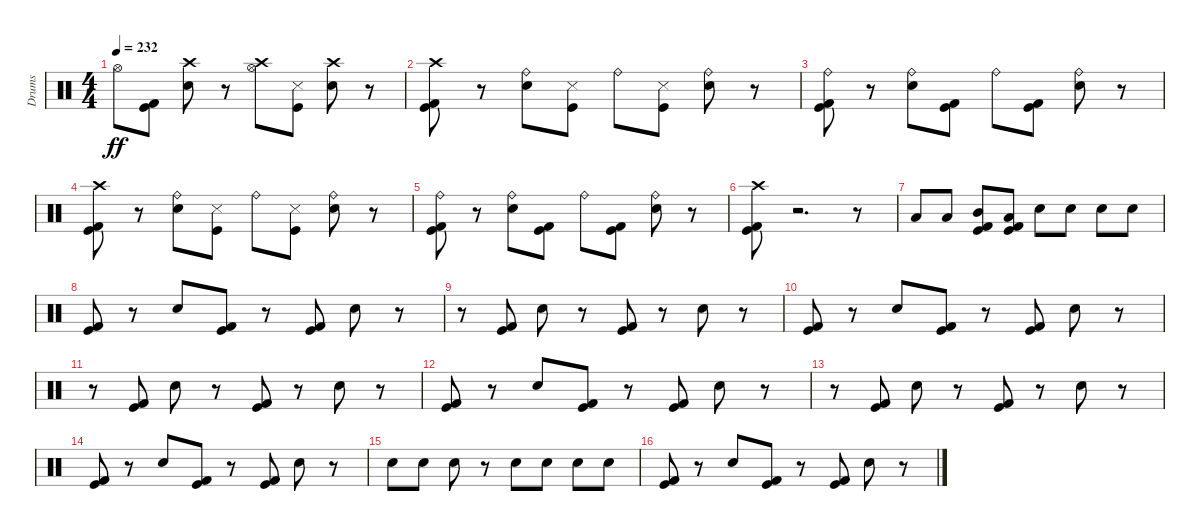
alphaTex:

\track ("Drums" "Drums") {instrument percussion}
\staff {score}
\articulation defaults
\ts (4 4)
\tempo 232
\clef neutral
\ks c "Hi-Hat (open)".8{dy ff}
("Kick (hit)" "Kick (hit) 2").8 ("Snare (hit) 2" "Crash high (hit)").8 r.8 ("Hi-Hat (open)" "Crash high (hit)").8 ("Kick (hit)" "Snare (side stick) 3").8 ("Snare (hit) 2" "Crash high (hit)").8 r.8 |
("Kick (hit)" "Kick (hit) 2" "Crash high (hit)").8 r.8 ("Snare (hit) 2" "Ride (bell)").8 ("Kick (hit)" "Snare (side stick) 3").8 "Ride (bell)".8 ("Kick (hit)" "Snare (side stick) 3").8 ("Snare (hit) 2" "Ride (bell)").8 r.8 |
("Kick (hit)" "Kick (hit) 2" "Ride (bell)").8 r.8 ("Snare (hit) 2" "Ride (bell)").8 ("Kick (hit)" "Kick (hit) 2").8 "Ride (bell)".8 ("Kick (hit)" "Kick (hit) 2").8 ("Snare (hit) 2" "Ride (bell)").8 r.8 |
("Kick (hit)" "Kick (hit) 2" "Crash high (hit)").8 r.8 ("Snare (hit) 2" "Ride (bell)").8 ("Kick (hit)" "Snare (side stick) 3").8 "Ride (bell)".8 ("Kick (hit)" "Snare (side stick) 3").8 ("Snare (hit) 2" "Ride (bell)").8 r.8 |
("Kick (hit)" "Kick (hit) 2" "Ride (bell)").8 r.8 ("Snare (hit) 2" "Ride (bell)").8 ("Kick (hit)" "Kick (hit) 2").8 "Ride (bell)".8 ("Kick (hit)" "Kick (hit) 2").8 ("Snare (hit) 2" "Ride (bell)").8 r.8 |
("Kick (hit)" "Kick (hit) 2" "Crash high (hit)").8 r.2{d} r.8 |
"Low Floor Tom (hit)".8 "Low Floor Tom (hit)".8 ("Kick (hit)" "Kick (hit) 2" "Mid Tom (hit)").8 ("Kick (hit)" "Kick (hit) 2" "Low Tom (hit)").8 "Snare (hit) 2".8 "Snare (hit) 2".8 "Snare (hit) 2".8 "Snare (hit) 2".8 |
("Kick (hit)" "Kick (hit) 2").8 r.8 "Snare (hit) 2".8 ("Kick (hit)" "Kick (hit) 2").8 r.8 ("Kick (hit)" "Kick (hit) 2").8 "Snare (hit) 2".8 r.8 |
r.8 ("Kick (hit)" "Kick (hit) 2").8 "Snare (hit) 2".8 r.8 ("Kick (hit)" "Kick (hit) 2").8 r.8 "Snare (hit) 2".8 r.8 |
("Kick (hit)" "Kick (hit) 2").8 r.8 "Snare (hit) 2".8 ("Kick (hit)" "Kick (hit) 2").8 r.8 ("Kick (hit)" "Kick (hit) 2").8 "Snare (hit) 2".8 r.8 |
r.8 ("Kick (hit)" "Kick (hit) 2").8 "Snare (hit) 2".8 r.8 ("Kick (hit)" "Kick (hit) 2").8 r.8 "Snare (hit) 2".8 r.8 |
("Kick (hit)" "Kick (hit) 2").8 r.8 "Snare (hit) 2".8 ("Kick (hit)" "Kick (hit) 2").8 r.8 ("Kick (hit)" "Kick (hit) 2").8 "Snare (hit) 2".8 r.8 |
r.8 ("Kick (hit)" "Kick (hit) 2").8 "Snare (hit) 2".8 r.8 ("Kick (hit)" "Kick (hit) 2").8 r.8 "Snare (hit) 2".8 r.8 |
("Kick (hit)" "Kick (hit) 2").8 r.8 "Snare (hit) 2".8 ("Kick (hit)" "Kick (hit) 2").8 r.8 ("Kick (hit)" "Kick (hit) 2").8 "Snare (hit) 2".8 r.8 |
"Snare (hit) 2".8 "Snare (hit) 2".8 "Snare (hit) 2".8 r.8 "Snare (hit) 2".8 "Snare (hit) 2".8 "Snare (hit) 2".8 "Snare (hit) 2".8 |
("Kick (hit)" "Kick (hit) 2").8 r.8 "Snare (hit) 2".8 ("Kick (hit)" "Kick (hit) 2").8 r.8 ("Kick (hit)" "Kick (hit) 2").8 "Snare (hit) 2".8 r.8
